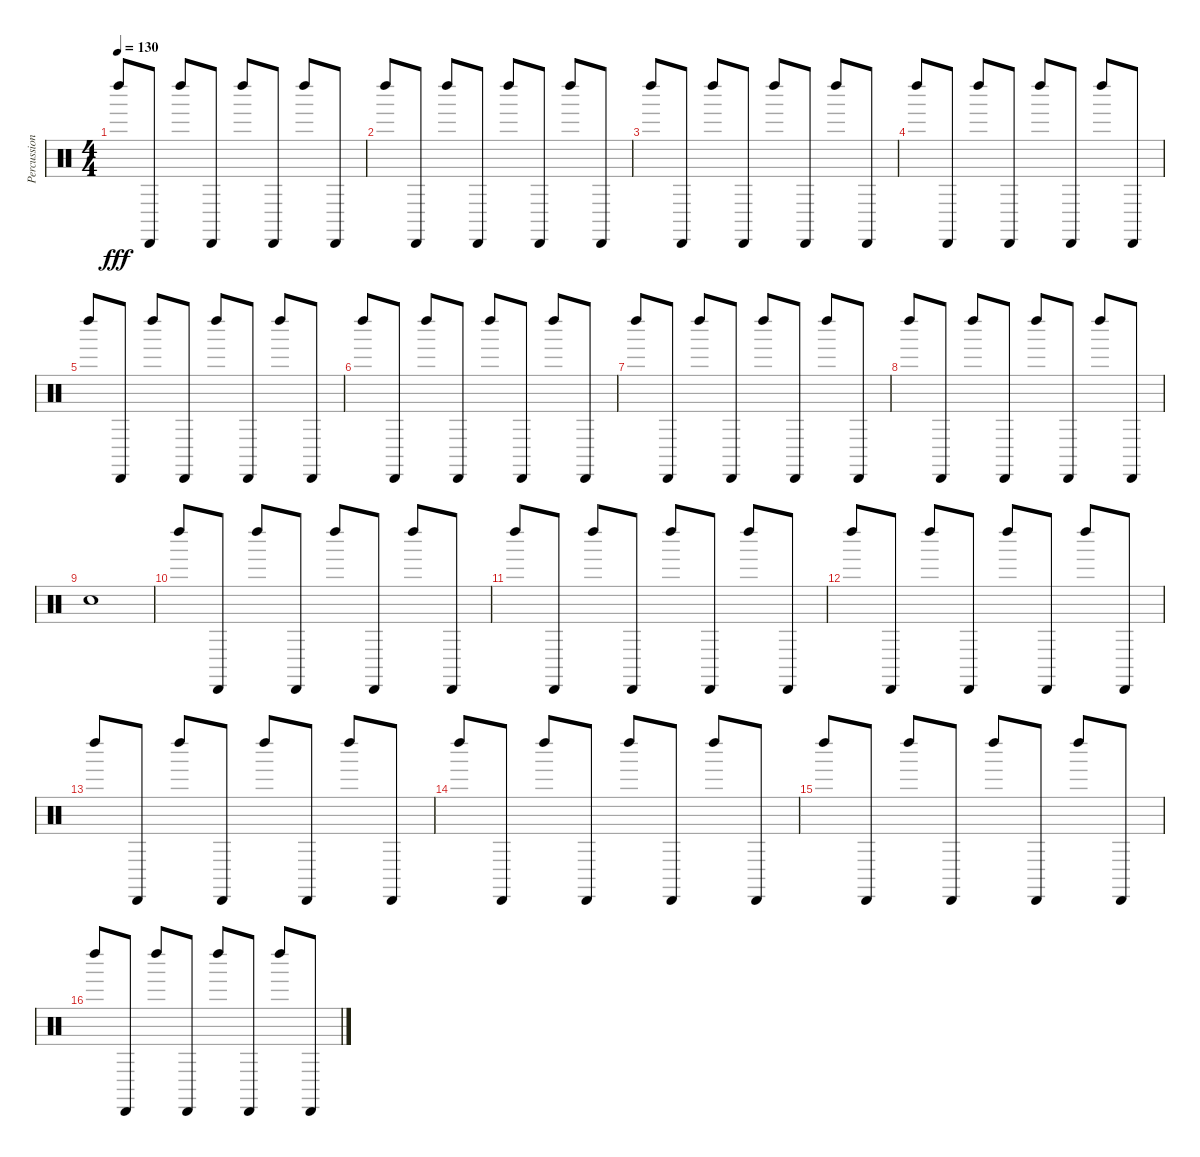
\track ("Percussions" "Percussion") {instrument percussion}
\staff {score}
\articulation defaults
\ts (4 4)
\tempo 130
\clef neutral
\ks c "Left Maraca (hit)".8{dy fff} "Cabasa (hit)".8 "Left Maraca (hit)".8 "Cabasa (hit)".8 "Left Maraca (hit)".8 "Cabasa (hit)".8 "Left Maraca (hit)".8 "Cabasa (hit)".8
|
"Left Maraca (hit)".8 "Cabasa (hit)".8 "Left Maraca (hit)".8 "Cabasa (hit)".8 "Left Maraca (hit)".8 "Cabasa (hit)".8 "Left Maraca (hit)".8 "Cabasa (hit)".8 |
"Left Maraca (hit)".8 "Cabasa (hit)".8 "Left Maraca (hit)".8 "Cabasa (hit)".8 "Left Maraca (hit)".8 "Cabasa (hit)".8 "Left Maraca (hit)".8 "Cabasa (hit)".8 |
"Left Maraca (hit)".8 "Cabasa (hit)".8 "Left Maraca (hit)".8 "Cabasa (hit)".8 "Left Maraca (hit)".8 "Cabasa (hit)".8 "Left Maraca (hit)".8 "Cabasa (hit)".8 |
"Left Maraca (hit)".8 "Cabasa (hit)".8 "Left Maraca (hit)".8 "Cabasa (hit)".8 "Left Maraca (hit)".8 "Cabasa (hit)".8 "Left Maraca (hit)".8 "Cabasa (hit)".8 |
"Left Maraca (hit)".8 "Cabasa (hit)".8 "Left Maraca (hit)".8 "Cabasa (hit)".8 "Left Maraca (hit)".8 "Cabasa (hit)".8 "Left Maraca (hit)".8 "Cabasa (hit)".8 |
"Left Maraca (hit)".8 "Cabasa (hit)".8 "Left Maraca (hit)".8 "Cabasa (hit)".8 "Left Maraca (hit)".8 "Cabasa (hit)".8 "Left Maraca (hit)".8 "Cabasa (hit)".8 |
"Left Maraca (hit)".8 "Cabasa (hit)".8 "Left Maraca (hit)".8 "Cabasa (hit)".8 "Left Maraca (hit)".8 "Cabasa (hit)".8 "Left Maraca (hit)".8 "Cabasa (hit)".8 |
"Electric Snare (hit)".1 |
"Left Maraca (hit)".8 "Cabasa (hit)".8 "Left Maraca (hit)".8 "Cabasa (hit)".8 "Left Maraca (hit)".8 "Cabasa (hit)".8 "Left Maraca (hit)".8 "Cabasa (hit)".8 |
"Left Maraca (hit)".8 "Cabasa (hit)".8 "Left Maraca (hit)".8 "Cabasa (hit)".8 "Left Maraca (hit)".8 "Cabasa (hit)".8 "Left Maraca (hit)".8 "Cabasa (hit)".8 |
"Left Maraca (hit)".8 "Cabasa (hit)".8 "Left Maraca (hit)".8 "Cabasa (hit)".8 "Left Maraca (hit)".8 "Cabasa (hit)".8 "Left Maraca (hit)".8 "Cabasa (hit)".8 |
"Left Maraca (hit)".8 "Cabasa (hit)".8 "Left Maraca (hit)".8 "Cabasa (hit)".8 "Left Maraca (hit)".8 "Cabasa (hit)".8 "Left Maraca (hit)".8 "Cabasa (hit)".8 |
"Left Maraca (hit)".8 "Cabasa (hit)".8 "Left Maraca (hit)".8 "Cabasa (hit)".8 "Left Maraca (hit)".8 "Cabasa (hit)".8 "Left Maraca (hit)".8 "Cabasa (hit)".8 |
"Left Maraca (hit)".8 "Cabasa (hit)".8 "Left Maraca (hit)".8 "Cabasa (hit)".8 "Left Maraca (hit)".8 "Cabasa (hit)".8 "Left Maraca (hit)".8 "Cabasa (hit)".8 |
"Left Maraca (hit)".8 "Cabasa (hit)".8 "Left Maraca (hit)".8 "Cabasa (hit)".8 "Left Maraca (hit)".8 "Cabasa (hit)".8 "Left Maraca (hit)".8 "Cabasa (hit)".8
